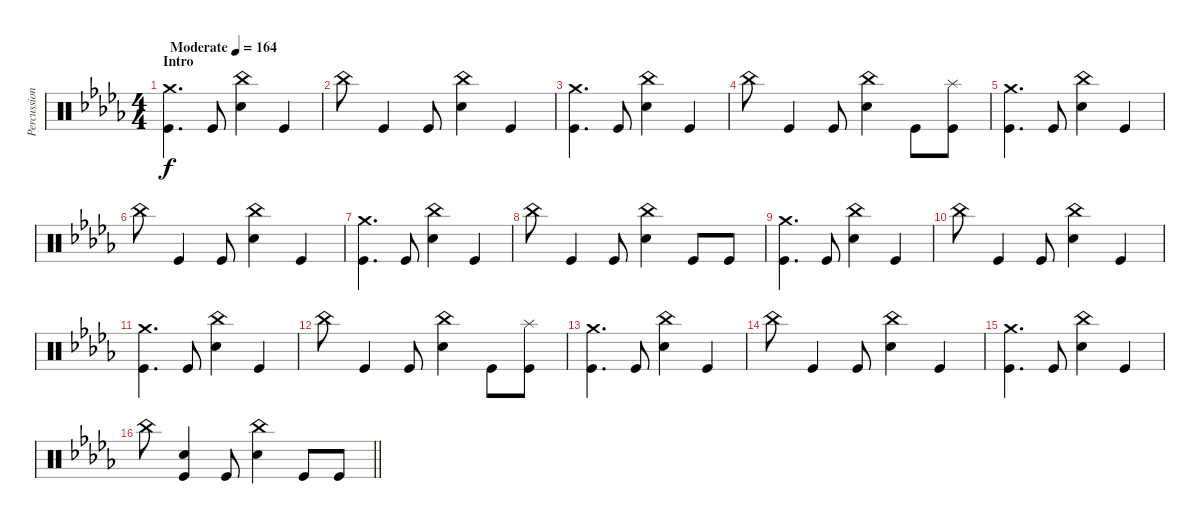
\track ("Percussion" "Percussion") {instrument percussion}
\staff {score}
\articulation defaults
\ts (4 4)
\section ("" "Intro")
\tempo (164 "Moderate")
\clef neutral
\ks db
("Crash medium (hit)" "Kick (hit)").4{d dy f} "Kick (hit)".8 ("China (hit)" "Electric Snare (hit)").4 "Kick (hit)".4 |
"China (hit)".8 "Kick (hit)".4 "Kick (hit)".8 ("China (hit)" "Electric Snare (hit)").4 "Kick (hit)".4 |
("Crash medium (hit)" "Kick (hit)").4{d} "Kick (hit)".8 ("China (hit)" "Electric Snare (hit)").4 "Kick (hit)".4 |
"China (hit)".8 "Kick (hit)".4 "Kick (hit)".8 ("China (hit)" "Electric Snare (hit)").4 "Kick (hit)".8 ("Splash (hit)" "Kick (hit)").8 |
("Crash medium (hit)" "Kick (hit)").4{d} "Kick (hit)".8 ("China (hit)" "Electric Snare (hit)").4 "Kick (hit)".4 |
"China (hit)".8 "Kick (hit)".4 "Kick (hit)".8 ("China (hit)" "Electric Snare (hit)").4 "Kick (hit)".4 |
("Crash medium (hit)" "Kick (hit)").4{d} "Kick (hit)".8 ("China (hit)" "Electric Snare (hit)").4 "Kick (hit)".4 |
"China (hit)".8 "Kick (hit)".4 "Kick (hit)".8 ("China (hit)" "Electric Snare (hit)").4 "Kick (hit)".8 "Kick (hit)".8 |
("Crash medium (hit)" "Kick (hit)").4{d} "Kick (hit)".8 ("China (hit)" "Electric Snare (hit)").4 "Kick (hit)".4 |
"China (hit)".8 "Kick (hit)".4 "Kick (hit)".8 ("China (hit)" "Electric Snare (hit)").4 "Kick (hit)".4 |
("Crash medium (hit)" "Kick (hit)").4{d} "Kick (hit)".8 ("China (hit)" "Electric Snare (hit)").4 "Kick (hit)".4 |
"China (hit)".8 "Kick (hit)".4 "Kick (hit)".8 ("China (hit)" "Electric Snare (hit)").4 "Kick (hit)".8 ("Splash (hit)" "Kick (hit)").8 |
("Crash medium (hit)" "Kick (hit)").4{d} "Kick (hit)".8 ("China (hit)" "Electric Snare (hit)").4 "Kick (hit)".4 |
"China (hit)".8 "Kick (hit)".4 "Kick (hit)".8 ("China (hit)" "Electric Snare (hit)").4 "Kick (hit)".4 |
("Crash medium (hit)" "Kick (hit)").4{d} "Kick (hit)".8 ("China (hit)" "Electric Snare (hit)").4 "Kick (hit)".4 |
\barLineRight lightlight "China (hit)".8
("Electric Snare (hit)" "Kick (hit)").4 "Kick (hit)".8 ("China (hit)" "Electric Snare (hit)").4 "Kick (hit)".8 "Kick (hit)".8
